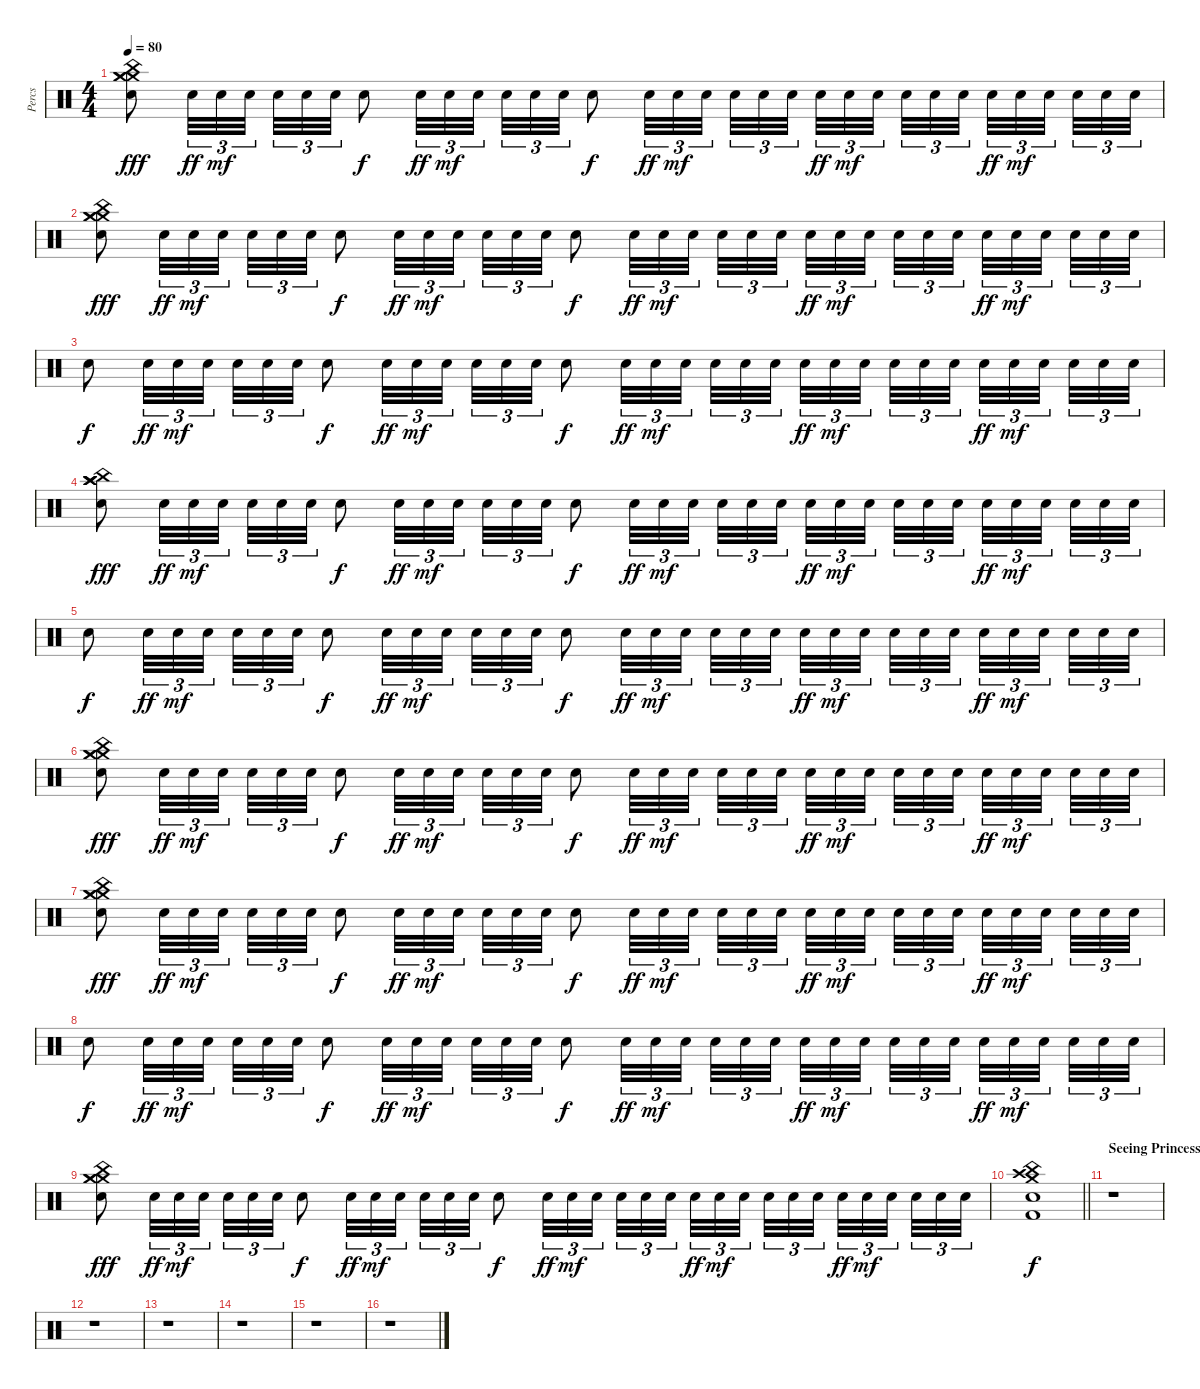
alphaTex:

\track ("Percs" "Percs") {instrument percussion}
\staff {score}
\articulation defaults
\ts (4 4)
\tempo 80
\clef neutral
\ks c
("Crash medium (hit)" "Crash medium (hit)" "Crash medium (hit)" "Snare (hit) 2" "China (hit)").8{dy fff volume 12} "Snare (hit) 2".32{tu (3 2) dy ff} "Snare (hit) 2".32{tu (3 2) dy mf} "Snare (hit) 2".32{tu (3 2)} "Snare (hit) 2".32{tu (3 2)} "Snare (hit) 2".32{tu (3 2)} "Snare (hit) 2".32{tu (3 2)} "Snare (hit) 2".8{dy f} "Snare (hit) 2".32{tu (3 2) dy ff} "Snare (hit) 2".32{tu (3 2) dy mf} "Snare (hit) 2".32{tu (3 2)} "Snare (hit) 2".32{tu (3 2)} "Snare (hit) 2".32{tu (3 2)} "Snare (hit) 2".32{tu (3 2)} "Snare (hit) 2".8{dy f} "Snare (hit) 2".32{tu (3 2) dy ff} "Snare (hit) 2".32{tu (3 2) dy mf} "Snare (hit) 2".32{tu (3 2)} "Snare (hit) 2".32{tu (3 2)} "Snare (hit) 2".32{tu (3 2)} "Snare (hit) 2".32{tu (3 2)} "Snare (hit) 2".32{tu (3 2) dy ff} "Snare (hit) 2".32{tu (3 2) dy mf} "Snare (hit) 2".32{tu (3 2)} "Snare (hit) 2".32{tu (3 2)} "Snare (hit) 2".32{tu (3 2)} "Snare (hit) 2".32{tu (3 2)} "Snare (hit) 2".32{tu (3 2) dy ff} "Snare (hit) 2".32{tu (3 2) dy mf} "Snare (hit) 2".32{tu (3 2)} "Snare (hit) 2".32{tu (3 2)} "Snare (hit) 2".32{tu (3 2)} "Snare (hit) 2".32{tu (3 2)} |
("Crash medium (hit)" "Crash medium (hit)" "Crash medium (hit)" "Snare (hit) 2" "China (hit)").8{dy fff volume 12} "Snare (hit) 2".32{tu (3 2) dy ff} "Snare (hit) 2".32{tu (3 2) dy mf} "Snare (hit) 2".32{tu (3 2)} "Snare (hit) 2".32{tu (3 2)} "Snare (hit) 2".32{tu (3 2)} "Snare (hit) 2".32{tu (3 2)} "Snare (hit) 2".8{dy f} "Snare (hit) 2".32{tu (3 2) dy ff} "Snare (hit) 2".32{tu (3 2) dy mf} "Snare (hit) 2".32{tu (3 2)} "Snare (hit) 2".32{tu (3 2)} "Snare (hit) 2".32{tu (3 2)} "Snare (hit) 2".32{tu (3 2)} "Snare (hit) 2".8{dy f} "Snare (hit) 2".32{tu (3 2) dy ff} "Snare (hit) 2".32{tu (3 2) dy mf} "Snare (hit) 2".32{tu (3 2)} "Snare (hit) 2".32{tu (3 2)} "Snare (hit) 2".32{tu (3 2)} "Snare (hit) 2".32{tu (3 2)} "Snare (hit) 2".32{tu (3 2) dy ff} "Snare (hit) 2".32{tu (3 2) dy mf} "Snare (hit) 2".32{tu (3 2)} "Snare (hit) 2".32{tu (3 2)} "Snare (hit) 2".32{tu (3 2)} "Snare (hit) 2".32{tu (3 2)} "Snare (hit) 2".32{tu (3 2) dy ff} "Snare (hit) 2".32{tu (3 2) dy mf} "Snare (hit) 2".32{tu (3 2)} "Snare (hit) 2".32{tu (3 2)} "Snare (hit) 2".32{tu (3 2)} "Snare (hit) 2".32{tu (3 2)} |
"Snare (hit) 2".8{dy f volume 12} "Snare (hit) 2".32{tu (3 2) dy ff} "Snare (hit) 2".32{tu (3 2) dy mf} "Snare (hit) 2".32{tu (3 2)} "Snare (hit) 2".32{tu (3 2)} "Snare (hit) 2".32{tu (3 2)} "Snare (hit) 2".32{tu (3 2)} "Snare (hit) 2".8{dy f} "Snare (hit) 2".32{tu (3 2) dy ff} "Snare (hit) 2".32{tu (3 2) dy mf} "Snare (hit) 2".32{tu (3 2)} "Snare (hit) 2".32{tu (3 2)} "Snare (hit) 2".32{tu (3 2)} "Snare (hit) 2".32{tu (3 2)} "Snare (hit) 2".8{dy f} "Snare (hit) 2".32{tu (3 2) dy ff} "Snare (hit) 2".32{tu (3 2) dy mf} "Snare (hit) 2".32{tu (3 2)} "Snare (hit) 2".32{tu (3 2)} "Snare (hit) 2".32{tu (3 2)} "Snare (hit) 2".32{tu (3 2)} "Snare (hit) 2".32{tu (3 2) dy ff} "Snare (hit) 2".32{tu (3 2) dy mf} "Snare (hit) 2".32{tu (3 2)} "Snare (hit) 2".32{tu (3 2)} "Snare (hit) 2".32{tu (3 2)} "Snare (hit) 2".32{tu (3 2)} "Snare (hit) 2".32{tu (3 2) dy ff} "Snare (hit) 2".32{tu (3 2) dy mf} "Snare (hit) 2".32{tu (3 2)} "Snare (hit) 2".32{tu (3 2)} "Snare (hit) 2".32{tu (3 2)} "Snare (hit) 2".32{tu (3 2)} |
("Crash high (hit)" "Crash high (hit)" "Crash high (hit)" "Snare (hit) 2" "China (hit)").8{dy fff volume 12} "Snare (hit) 2".32{tu (3 2) dy ff} "Snare (hit) 2".32{tu (3 2) dy mf} "Snare (hit) 2".32{tu (3 2)} "Snare (hit) 2".32{tu (3 2)} "Snare (hit) 2".32{tu (3 2)} "Snare (hit) 2".32{tu (3 2)} "Snare (hit) 2".8{dy f} "Snare (hit) 2".32{tu (3 2) dy ff} "Snare (hit) 2".32{tu (3 2) dy mf} "Snare (hit) 2".32{tu (3 2)} "Snare (hit) 2".32{tu (3 2)} "Snare (hit) 2".32{tu (3 2)} "Snare (hit) 2".32{tu (3 2)} "Snare (hit) 2".8{dy f} "Snare (hit) 2".32{tu (3 2) dy ff} "Snare (hit) 2".32{tu (3 2) dy mf} "Snare (hit) 2".32{tu (3 2)} "Snare (hit) 2".32{tu (3 2)} "Snare (hit) 2".32{tu (3 2)} "Snare (hit) 2".32{tu (3 2)} "Snare (hit) 2".32{tu (3 2) dy ff} "Snare (hit) 2".32{tu (3 2) dy mf} "Snare (hit) 2".32{tu (3 2)} "Snare (hit) 2".32{tu (3 2)} "Snare (hit) 2".32{tu (3 2)} "Snare (hit) 2".32{tu (3 2)} "Snare (hit) 2".32{tu (3 2) dy ff} "Snare (hit) 2".32{tu (3 2) dy mf} "Snare (hit) 2".32{tu (3 2)} "Snare (hit) 2".32{tu (3 2)} "Snare (hit) 2".32{tu (3 2)} "Snare (hit) 2".32{tu (3 2)} |
"Snare (hit) 2".8{dy f volume 12} "Snare (hit) 2".32{tu (3 2) dy ff} "Snare (hit) 2".32{tu (3 2) dy mf} "Snare (hit) 2".32{tu (3 2)} "Snare (hit) 2".32{tu (3 2)} "Snare (hit) 2".32{tu (3 2)} "Snare (hit) 2".32{tu (3 2)} "Snare (hit) 2".8{dy f} "Snare (hit) 2".32{tu (3 2) dy ff} "Snare (hit) 2".32{tu (3 2) dy mf} "Snare (hit) 2".32{tu (3 2)} "Snare (hit) 2".32{tu (3 2)} "Snare (hit) 2".32{tu (3 2)} "Snare (hit) 2".32{tu (3 2)} "Snare (hit) 2".8{dy f} "Snare (hit) 2".32{tu (3 2) dy ff} "Snare (hit) 2".32{tu (3 2) dy mf} "Snare (hit) 2".32{tu (3 2)} "Snare (hit) 2".32{tu (3 2)} "Snare (hit) 2".32{tu (3 2)} "Snare (hit) 2".32{tu (3 2)} "Snare (hit) 2".32{tu (3 2) dy ff} "Snare (hit) 2".32{tu (3 2) dy mf} "Snare (hit) 2".32{tu (3 2)} "Snare (hit) 2".32{tu (3 2)} "Snare (hit) 2".32{tu (3 2)} "Snare (hit) 2".32{tu (3 2)} "Snare (hit) 2".32{tu (3 2) dy ff} "Snare (hit) 2".32{tu (3 2) dy mf} "Snare (hit) 2".32{tu (3 2)} "Snare (hit) 2".32{tu (3 2)} "Snare (hit) 2".32{tu (3 2)} "Snare (hit) 2".32{tu (3 2)} |
("Crash medium (hit)" "Crash medium (hit)" "Crash medium (hit)" "Snare (hit) 2" "China (hit)").8{dy fff volume 12} "Snare (hit) 2".32{tu (3 2) dy ff} "Snare (hit) 2".32{tu (3 2) dy mf} "Snare (hit) 2".32{tu (3 2)} "Snare (hit) 2".32{tu (3 2)} "Snare (hit) 2".32{tu (3 2)} "Snare (hit) 2".32{tu (3 2)} "Snare (hit) 2".8{dy f} "Snare (hit) 2".32{tu (3 2) dy ff} "Snare (hit) 2".32{tu (3 2) dy mf} "Snare (hit) 2".32{tu (3 2)} "Snare (hit) 2".32{tu (3 2)} "Snare (hit) 2".32{tu (3 2)} "Snare (hit) 2".32{tu (3 2)} "Snare (hit) 2".8{dy f} "Snare (hit) 2".32{tu (3 2) dy ff} "Snare (hit) 2".32{tu (3 2) dy mf} "Snare (hit) 2".32{tu (3 2)} "Snare (hit) 2".32{tu (3 2)} "Snare (hit) 2".32{tu (3 2)} "Snare (hit) 2".32{tu (3 2)} "Snare (hit) 2".32{tu (3 2) dy ff} "Snare (hit) 2".32{tu (3 2) dy mf} "Snare (hit) 2".32{tu (3 2)} "Snare (hit) 2".32{tu (3 2)} "Snare (hit) 2".32{tu (3 2)} "Snare (hit) 2".32{tu (3 2)} "Snare (hit) 2".32{tu (3 2) dy ff} "Snare (hit) 2".32{tu (3 2) dy mf} "Snare (hit) 2".32{tu (3 2)} "Snare (hit) 2".32{tu (3 2)} "Snare (hit) 2".32{tu (3 2)} "Snare (hit) 2".32{tu (3 2)} |
("Crash medium (hit)" "Crash medium (hit)" "Crash medium (hit)" "Snare (hit) 2" "China (hit)").8{dy fff volume 12} "Snare (hit) 2".32{tu (3 2) dy ff} "Snare (hit) 2".32{tu (3 2) dy mf} "Snare (hit) 2".32{tu (3 2)} "Snare (hit) 2".32{tu (3 2)} "Snare (hit) 2".32{tu (3 2)} "Snare (hit) 2".32{tu (3 2)} "Snare (hit) 2".8{dy f} "Snare (hit) 2".32{tu (3 2) dy ff} "Snare (hit) 2".32{tu (3 2) dy mf} "Snare (hit) 2".32{tu (3 2)} "Snare (hit) 2".32{tu (3 2)} "Snare (hit) 2".32{tu (3 2)} "Snare (hit) 2".32{tu (3 2)} "Snare (hit) 2".8{dy f} "Snare (hit) 2".32{tu (3 2) dy ff} "Snare (hit) 2".32{tu (3 2) dy mf} "Snare (hit) 2".32{tu (3 2)} "Snare (hit) 2".32{tu (3 2)} "Snare (hit) 2".32{tu (3 2)} "Snare (hit) 2".32{tu (3 2)} "Snare (hit) 2".32{tu (3 2) dy ff} "Snare (hit) 2".32{tu (3 2) dy mf} "Snare (hit) 2".32{tu (3 2)} "Snare (hit) 2".32{tu (3 2)} "Snare (hit) 2".32{tu (3 2)} "Snare (hit) 2".32{tu (3 2)} "Snare (hit) 2".32{tu (3 2) dy ff} "Snare (hit) 2".32{tu (3 2) dy mf} "Snare (hit) 2".32{tu (3 2)} "Snare (hit) 2".32{tu (3 2)} "Snare (hit) 2".32{tu (3 2)} "Snare (hit) 2".32{tu (3 2)} |
"Snare (hit) 2".8{dy f volume 12} "Snare (hit) 2".32{tu (3 2) dy ff} "Snare (hit) 2".32{tu (3 2) dy mf} "Snare (hit) 2".32{tu (3 2)} "Snare (hit) 2".32{tu (3 2)} "Snare (hit) 2".32{tu (3 2)} "Snare (hit) 2".32{tu (3 2)} "Snare (hit) 2".8{dy f} "Snare (hit) 2".32{tu (3 2) dy ff} "Snare (hit) 2".32{tu (3 2) dy mf} "Snare (hit) 2".32{tu (3 2)} "Snare (hit) 2".32{tu (3 2)} "Snare (hit) 2".32{tu (3 2)} "Snare (hit) 2".32{tu (3 2)} "Snare (hit) 2".8{dy f} "Snare (hit) 2".32{tu (3 2) dy ff} "Snare (hit) 2".32{tu (3 2) dy mf} "Snare (hit) 2".32{tu (3 2)} "Snare (hit) 2".32{tu (3 2)} "Snare (hit) 2".32{tu (3 2)} "Snare (hit) 2".32{tu (3 2)} "Snare (hit) 2".32{tu (3 2) dy ff} "Snare (hit) 2".32{tu (3 2) dy mf} "Snare (hit) 2".32{tu (3 2)} "Snare (hit) 2".32{tu (3 2)} "Snare (hit) 2".32{tu (3 2)} "Snare (hit) 2".32{tu (3 2)} "Snare (hit) 2".32{tu (3 2) dy ff} "Snare (hit) 2".32{tu (3 2) dy mf} "Snare (hit) 2".32{tu (3 2)} "Snare (hit) 2".32{tu (3 2)} "Snare (hit) 2".32{tu (3 2)} "Snare (hit) 2".32{tu (3 2)} |
("Crash medium (hit)" "Crash medium (hit)" "Crash medium (hit)" "Snare (hit) 2" "China (hit)").8{dy fff volume 12} "Snare (hit) 2".32{tu (3 2) dy ff} "Snare (hit) 2".32{tu (3 2) dy mf} "Snare (hit) 2".32{tu (3 2)} "Snare (hit) 2".32{tu (3 2)} "Snare (hit) 2".32{tu (3 2)} "Snare (hit) 2".32{tu (3 2)} "Snare (hit) 2".8{dy f} "Snare (hit) 2".32{tu (3 2) dy ff} "Snare (hit) 2".32{tu (3 2) dy mf} "Snare (hit) 2".32{tu (3 2)} "Snare (hit) 2".32{tu (3 2)} "Snare (hit) 2".32{tu (3 2)} "Snare (hit) 2".32{tu (3 2)} "Snare (hit) 2".8{dy f} "Snare (hit) 2".32{tu (3 2) dy ff} "Snare (hit) 2".32{tu (3 2) dy mf} "Snare (hit) 2".32{tu (3 2)} "Snare (hit) 2".32{tu (3 2)} "Snare (hit) 2".32{tu (3 2)} "Snare (hit) 2".32{tu (3 2)} "Snare (hit) 2".32{tu (3 2) dy ff} "Snare (hit) 2".32{tu (3 2) dy mf} "Snare (hit) 2".32{tu (3 2)} "Snare (hit) 2".32{tu (3 2)} "Snare (hit) 2".32{tu (3 2)} "Snare (hit) 2".32{tu (3 2)} "Snare (hit) 2".32{tu (3 2) dy ff} "Snare (hit) 2".32{tu (3 2) dy mf} "Snare (hit) 2".32{tu (3 2)} "Snare (hit) 2".32{tu (3 2)} "Snare (hit) 2".32{tu (3 2)} "Snare (hit) 2".32{tu (3 2)} |
\barLineRight lightlight
("Crash medium (hit)" "Crash high (hit)" "China (hit)" "Snare (hit) 2" "Kick (hit) 2").1{dy f} |
\section ("" "Seeing Princess Elaia")
r.1 |
r.1 |
r.1 |
r.1 |
r.1 |
r.1
